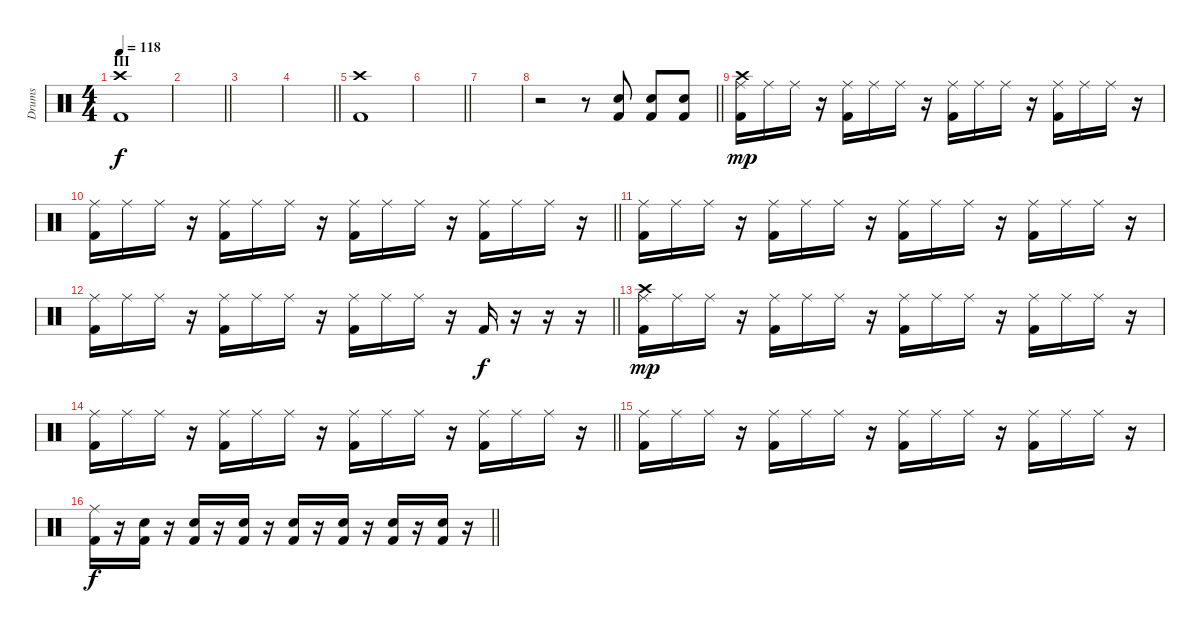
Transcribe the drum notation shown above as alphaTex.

\track ("Drums" "Drums") {instrument percussion}
\staff {score}
\articulation defaults
\ts (4 4)
\section ("" "III")
\tempo 118
\clef neutral
\ks c
("Kick (hit) 2" "Crash high (hit)").1{dy f volume 11} |
\barLineRight lightlight
|
|
\barLineRight lightlight
|
("Kick (hit) 2" "Crash high (hit)").1 |
\barLineRight lightlight
|
|
\barLineRight lightlight
r.2 r.8 ("Kick (hit) 2" "Snare (hit) 2").8 ("Kick (hit) 2" "Snare (hit) 2").8 ("Kick (hit) 2" "Snare (hit) 2").8 |
("Kick (hit) 2" "Ride (middle)" "Crash high (hit)").16{dy mp} "Ride (middle)".16 "Ride (middle)".16 r.16 ("Kick (hit) 2" "Ride (middle)").16 "Ride (middle)".16 "Ride (middle)".16 r.16 ("Kick (hit) 2" "Ride (middle)").16 "Ride (middle)".16 "Ride (middle)".16 r.16 ("Kick (hit) 2" "Ride (middle)").16 "Ride (middle)".16 "Ride (middle)".16 r.16 |
\barLineRight lightlight
("Kick (hit) 2" "Ride (middle)").16 "Ride (middle)".16 "Ride (middle)".16 r.16 ("Kick (hit) 2" "Ride (middle)").16 "Ride (middle)".16 "Ride (middle)".16 r.16 ("Kick (hit) 2" "Ride (middle)").16 "Ride (middle)".16 "Ride (middle)".16 r.16 ("Kick (hit) 2" "Ride (middle)").16 "Ride (middle)".16 "Ride (middle)".16 r.16 |
("Kick (hit) 2" "Ride (middle)").16 "Ride (middle)".16 "Ride (middle)".16 r.16 ("Kick (hit) 2" "Ride (middle)").16 "Ride (middle)".16 "Ride (middle)".16 r.16 ("Kick (hit) 2" "Ride (middle)").16 "Ride (middle)".16 "Ride (middle)".16 r.16 ("Kick (hit) 2" "Ride (middle)").16 "Ride (middle)".16 "Ride (middle)".16 r.16 |
\barLineRight lightlight
("Kick (hit) 2" "Ride (middle)").16 "Ride (middle)".16 "Ride (middle)".16 r.16 ("Kick (hit) 2" "Ride (middle)").16 "Ride (middle)".16 "Ride (middle)".16 r.16 ("Kick (hit) 2" "Ride (middle)").16 "Ride (middle)".16 "Ride (middle)".16 r.16 "Kick (hit) 2".16{dy f} r.16 r.16 r.16 |
("Kick (hit) 2" "Ride (middle)" "Crash high (hit)").16{dy mp} "Ride (middle)".16 "Ride (middle)".16 r.16 ("Kick (hit) 2" "Ride (middle)").16 "Ride (middle)".16 "Ride (middle)".16 r.16 ("Kick (hit) 2" "Ride (middle)").16 "Ride (middle)".16 "Ride (middle)".16 r.16 ("Kick (hit) 2" "Ride (middle)").16 "Ride (middle)".16 "Ride (middle)".16 r.16 |
\barLineRight lightlight
("Kick (hit) 2" "Ride (middle)").16 "Ride (middle)".16 "Ride (middle)".16 r.16 ("Kick (hit) 2" "Ride (middle)").16 "Ride (middle)".16 "Ride (middle)".16 r.16 ("Kick (hit) 2" "Ride (middle)").16 "Ride (middle)".16 "Ride (middle)".16 r.16 ("Kick (hit) 2" "Ride (middle)").16 "Ride (middle)".16 "Ride (middle)".16 r.16 |
("Kick (hit) 2" "Ride (middle)").16 "Ride (middle)".16 "Ride (middle)".16 r.16 ("Kick (hit) 2" "Ride (middle)").16 "Ride (middle)".16 "Ride (middle)".16 r.16 ("Kick (hit) 2" "Ride (middle)").16 "Ride (middle)".16 "Ride (middle)".16 r.16 ("Kick (hit) 2" "Ride (middle)").16 "Ride (middle)".16 "Ride (middle)".16 r.16 |
\barLineRight lightlight
("Kick (hit) 2" "Ride (middle)").16{dy f} r.16 ("Kick (hit) 2" "Snare (hit) 2").16 r.16 ("Kick (hit) 2" "Snare (hit) 2").16 r.16 ("Kick (hit) 2" "Snare (hit) 2").16 r.16 ("Kick (hit) 2" "Snare (hit) 2").16 r.16 ("Kick (hit) 2" "Snare (hit) 2").16 r.16 ("Kick (hit) 2" "Snare (hit) 2").16 r.16 ("Kick (hit) 2" "Snare (hit) 2").16 r.16
